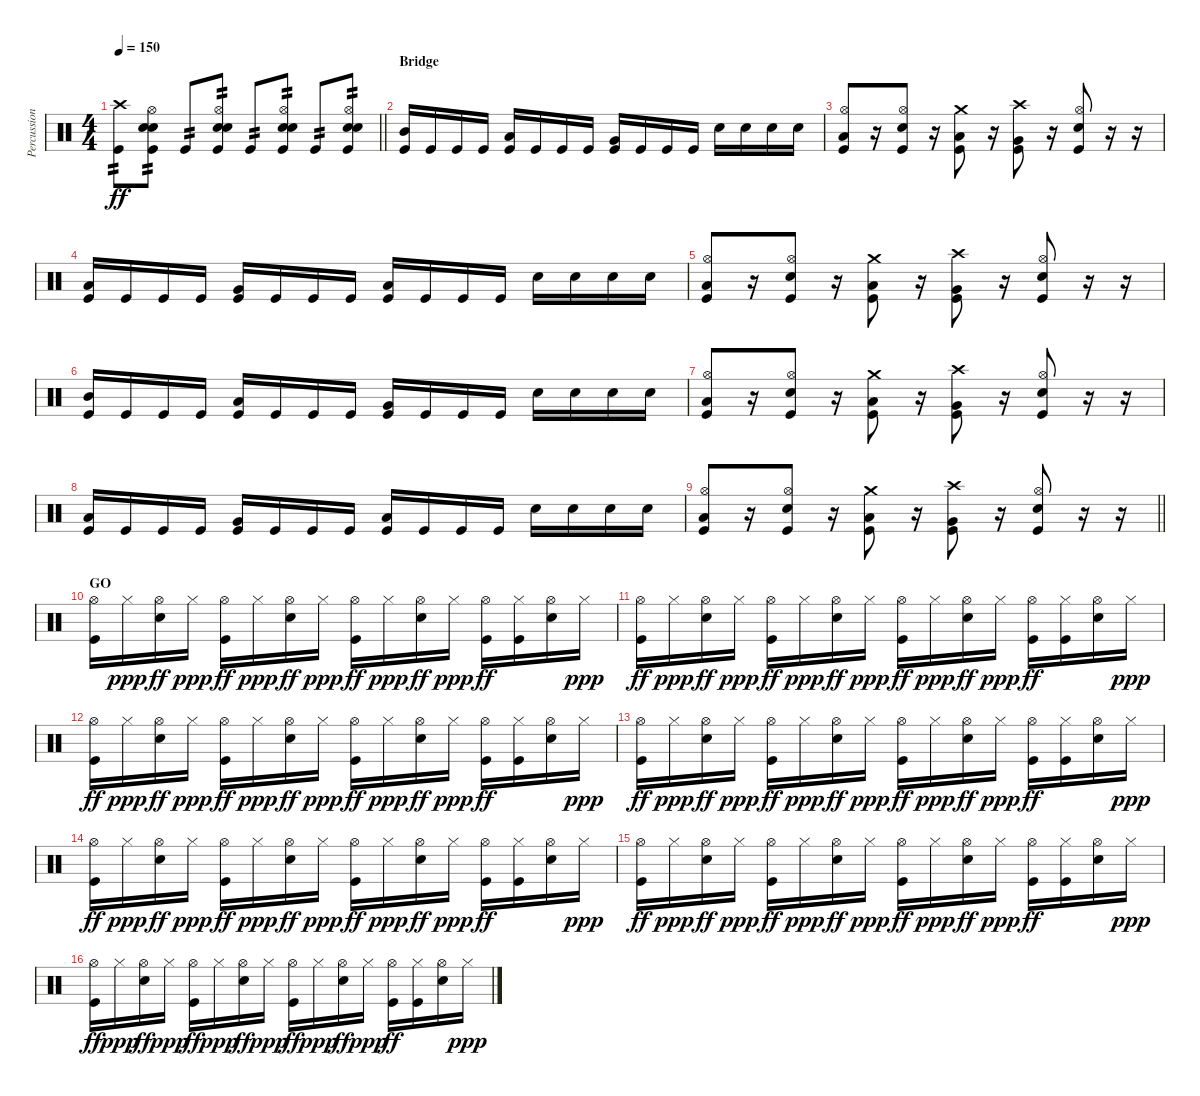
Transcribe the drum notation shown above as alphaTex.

\track ("Percussion" "Percussion") {instrument percussion}
\staff {score}
\articulation defaults
\ts (4 4)
\tempo 150
\clef neutral
\barLineRight lightlight
\ks c
("Crash high (hit)" "Kick (hit)").8{tp 2 dy ff} ("Hi-Hat (open)" "Snare (hit) 2" "Electric Snare (hit)" "Kick (hit)").8{tp 2} "Kick (hit)".8{tp 2} ("Hi-Hat (open)" "Snare (hit) 2" "Electric Snare (hit)" "Kick (hit)").8{tp 2} "Kick (hit)".8{tp 2} ("Hi-Hat (open)" "Snare (hit) 2" "Electric Snare (hit)" "Kick (hit)").8{tp 2} "Kick (hit)".8{tp 2} ("Hi-Hat (open)" "Snare (hit) 2" "Electric Snare (hit)" "Kick (hit)").8{tp 2} |
\section ("" "Bridge")
("Mid Tom (hit)" "Kick (hit)").16 "Kick (hit)".16 "Kick (hit)".16 "Kick (hit)".16 ("Low Tom (hit)" "Kick (hit)").16 "Kick (hit)".16 "Kick (hit)".16 "Kick (hit)".16 ("Very Low Tom (hit)" "Kick (hit)").16 "Kick (hit)".16 "Kick (hit)".16 "Kick (hit)".16 "Electric Snare (hit)".16 "Electric Snare (hit)".16 "Electric Snare (hit)".16 "Electric Snare (hit)".16 |
("Hi-Hat (open)" "Low Floor Tom (hit)" "Kick (hit)").8 r.16 ("Electric Snare (hit)" "Hi-Hat (open)" "Kick (hit)").8 r.16 ("Crash medium (hit)" "Low Tom (hit)" "Kick (hit)").8 r.16 ("Crash high (hit)" "Very Low Tom (hit)" "Kick (hit)").8 r.16 ("Hi-Hat (open)" "Electric Snare (hit)" "Kick (hit)").8 r.16 r.16 |
("Low Tom (hit)" "Kick (hit)").16 "Kick (hit)".16 "Kick (hit)".16 "Kick (hit)".16 ("Very Low Tom (hit)" "Kick (hit)").16 "Kick (hit)".16 "Kick (hit)".16 "Kick (hit)".16 ("Low Floor Tom (hit)" "Kick (hit)").16 "Kick (hit)".16 "Kick (hit)".16 "Kick (hit)".16 "Electric Snare (hit)".16 "Electric Snare (hit)".16 "Electric Snare (hit)".16 "Electric Snare (hit)".16 |
("Hi-Hat (open)" "Low Floor Tom (hit)" "Kick (hit)").8 r.16 ("Electric Snare (hit)" "Hi-Hat (open)" "Kick (hit)").8 r.16 ("Crash medium (hit)" "Low Tom (hit)" "Kick (hit)").8 r.16 ("Crash high (hit)" "Very Low Tom (hit)" "Kick (hit)").8 r.16 ("Hi-Hat (open)" "Electric Snare (hit)" "Kick (hit)").8 r.16 r.16 |
("Mid Tom (hit)" "Kick (hit)").16 "Kick (hit)".16 "Kick (hit)".16 "Kick (hit)".16 ("Low Tom (hit)" "Kick (hit)").16 "Kick (hit)".16 "Kick (hit)".16 "Kick (hit)".16 ("Very Low Tom (hit)" "Kick (hit)").16 "Kick (hit)".16 "Kick (hit)".16 "Kick (hit)".16 "Electric Snare (hit)".16 "Electric Snare (hit)".16 "Electric Snare (hit)".16 "Electric Snare (hit)".16 |
("Hi-Hat (open)" "Low Floor Tom (hit)" "Kick (hit)").8 r.16 ("Electric Snare (hit)" "Hi-Hat (open)" "Kick (hit)").8 r.16 ("Crash medium (hit)" "Low Tom (hit)" "Kick (hit)").8 r.16 ("Crash high (hit)" "Very Low Tom (hit)" "Kick (hit)").8 r.16 ("Hi-Hat (open)" "Electric Snare (hit)" "Kick (hit)").8 r.16 r.16 |
("Low Tom (hit)" "Kick (hit)").16 "Kick (hit)".16 "Kick (hit)".16 "Kick (hit)".16 ("Very Low Tom (hit)" "Kick (hit)").16 "Kick (hit)".16 "Kick (hit)".16 "Kick (hit)".16 ("Low Floor Tom (hit)" "Kick (hit)").16 "Kick (hit)".16 "Kick (hit)".16 "Kick (hit)".16 "Electric Snare (hit)".16 "Electric Snare (hit)".16 "Electric Snare (hit)".16 "Electric Snare (hit)".16 |
\barLineRight lightlight
("Hi-Hat (open)" "Low Floor Tom (hit)" "Kick (hit)").8 r.16 ("Electric Snare (hit)" "Hi-Hat (open)" "Kick (hit)").8 r.16 ("Crash medium (hit)" "Low Tom (hit)" "Kick (hit)").8 r.16 ("Crash high (hit)" "Very Low Tom (hit)" "Kick (hit)").8 r.16 ("Hi-Hat (open)" "Electric Snare (hit)" "Kick (hit)").8 r.16 r.16 |
\section ("" "GO")
("Hi-Hat (open)" "Kick (hit)").16 "Hi-Hat (closed)".16{dy ppp} ("Hi-Hat (open)" "Electric Snare (hit)").16{dy ff} "Hi-Hat (closed)".16{dy ppp} ("Hi-Hat (open)" "Kick (hit)").16{dy ff} "Hi-Hat (closed)".16{dy ppp} ("Hi-Hat (open)" "Electric Snare (hit)").16{dy ff} "Hi-Hat (closed)".16{dy ppp} ("Hi-Hat (open)" "Kick (hit)").16{dy ff} "Hi-Hat (closed)".16{dy ppp} ("Hi-Hat (open)" "Electric Snare (hit)").16{dy ff} "Hi-Hat (closed)".16{dy ppp} ("Hi-Hat (open)" "Kick (hit)").16{dy ff} ("Hi-Hat (closed)" "Kick (hit)").16 ("Hi-Hat (open)" "Electric Snare (hit)").16 "Hi-Hat (closed)".16{dy ppp} |
("Hi-Hat (open)" "Kick (hit)").16{dy ff} "Hi-Hat (closed)".16{dy ppp} ("Hi-Hat (open)" "Electric Snare (hit)").16{dy ff} "Hi-Hat (closed)".16{dy ppp} ("Hi-Hat (open)" "Kick (hit)").16{dy ff} "Hi-Hat (closed)".16{dy ppp} ("Hi-Hat (open)" "Electric Snare (hit)").16{dy ff} "Hi-Hat (closed)".16{dy ppp} ("Hi-Hat (open)" "Kick (hit)").16{dy ff} "Hi-Hat (closed)".16{dy ppp} ("Hi-Hat (open)" "Electric Snare (hit)").16{dy ff} "Hi-Hat (closed)".16{dy ppp} ("Hi-Hat (open)" "Kick (hit)").16{dy ff} ("Hi-Hat (closed)" "Kick (hit)").16 ("Hi-Hat (open)" "Electric Snare (hit)").16 "Hi-Hat (closed)".16{dy ppp} |
("Hi-Hat (open)" "Kick (hit)").16{dy ff} "Hi-Hat (closed)".16{dy ppp} ("Hi-Hat (open)" "Electric Snare (hit)").16{dy ff} "Hi-Hat (closed)".16{dy ppp} ("Hi-Hat (open)" "Kick (hit)").16{dy ff} "Hi-Hat (closed)".16{dy ppp} ("Hi-Hat (open)" "Electric Snare (hit)").16{dy ff} "Hi-Hat (closed)".16{dy ppp} ("Hi-Hat (open)" "Kick (hit)").16{dy ff} "Hi-Hat (closed)".16{dy ppp} ("Hi-Hat (open)" "Electric Snare (hit)").16{dy ff} "Hi-Hat (closed)".16{dy ppp} ("Hi-Hat (open)" "Kick (hit)").16{dy ff} ("Hi-Hat (closed)" "Kick (hit)").16 ("Hi-Hat (open)" "Electric Snare (hit)").16 "Hi-Hat (closed)".16{dy ppp} |
("Hi-Hat (open)" "Kick (hit)").16{dy ff} "Hi-Hat (closed)".16{dy ppp} ("Hi-Hat (open)" "Electric Snare (hit)").16{dy ff} "Hi-Hat (closed)".16{dy ppp} ("Hi-Hat (open)" "Kick (hit)").16{dy ff} "Hi-Hat (closed)".16{dy ppp} ("Hi-Hat (open)" "Electric Snare (hit)").16{dy ff} "Hi-Hat (closed)".16{dy ppp} ("Hi-Hat (open)" "Kick (hit)").16{dy ff} "Hi-Hat (closed)".16{dy ppp} ("Hi-Hat (open)" "Electric Snare (hit)").16{dy ff} "Hi-Hat (closed)".16{dy ppp} ("Hi-Hat (open)" "Kick (hit)").16{dy ff} ("Hi-Hat (closed)" "Kick (hit)").16 ("Hi-Hat (open)" "Electric Snare (hit)").16 "Hi-Hat (closed)".16{dy ppp} |
("Hi-Hat (open)" "Kick (hit)").16{dy ff} "Hi-Hat (closed)".16{dy ppp} ("Hi-Hat (open)" "Electric Snare (hit)").16{dy ff} "Hi-Hat (closed)".16{dy ppp} ("Hi-Hat (open)" "Kick (hit)").16{dy ff} "Hi-Hat (closed)".16{dy ppp} ("Hi-Hat (open)" "Electric Snare (hit)").16{dy ff} "Hi-Hat (closed)".16{dy ppp} ("Hi-Hat (open)" "Kick (hit)").16{dy ff} "Hi-Hat (closed)".16{dy ppp} ("Hi-Hat (open)" "Electric Snare (hit)").16{dy ff} "Hi-Hat (closed)".16{dy ppp} ("Hi-Hat (open)" "Kick (hit)").16{dy ff} ("Hi-Hat (closed)" "Kick (hit)").16 ("Hi-Hat (open)" "Electric Snare (hit)").16 "Hi-Hat (closed)".16{dy ppp} |
("Hi-Hat (open)" "Kick (hit)").16{dy ff} "Hi-Hat (closed)".16{dy ppp} ("Hi-Hat (open)" "Electric Snare (hit)").16{dy ff} "Hi-Hat (closed)".16{dy ppp} ("Hi-Hat (open)" "Kick (hit)").16{dy ff} "Hi-Hat (closed)".16{dy ppp} ("Hi-Hat (open)" "Electric Snare (hit)").16{dy ff} "Hi-Hat (closed)".16{dy ppp} ("Hi-Hat (open)" "Kick (hit)").16{dy ff} "Hi-Hat (closed)".16{dy ppp} ("Hi-Hat (open)" "Electric Snare (hit)").16{dy ff} "Hi-Hat (closed)".16{dy ppp} ("Hi-Hat (open)" "Kick (hit)").16{dy ff} ("Hi-Hat (closed)" "Kick (hit)").16 ("Hi-Hat (open)" "Electric Snare (hit)").16 "Hi-Hat (closed)".16{dy ppp} |
("Hi-Hat (open)" "Kick (hit)").16{dy ff} "Hi-Hat (closed)".16{dy ppp} ("Hi-Hat (open)" "Electric Snare (hit)").16{dy ff} "Hi-Hat (closed)".16{dy ppp} ("Hi-Hat (open)" "Kick (hit)").16{dy ff} "Hi-Hat (closed)".16{dy ppp} ("Hi-Hat (open)" "Electric Snare (hit)").16{dy ff} "Hi-Hat (closed)".16{dy ppp} ("Hi-Hat (open)" "Kick (hit)").16{dy ff} "Hi-Hat (closed)".16{dy ppp} ("Hi-Hat (open)" "Electric Snare (hit)").16{dy ff} "Hi-Hat (closed)".16{dy ppp} ("Hi-Hat (open)" "Kick (hit)").16{dy ff} ("Hi-Hat (closed)" "Kick (hit)").16 ("Hi-Hat (open)" "Electric Snare (hit)").16 "Hi-Hat (closed)".16{dy ppp}
